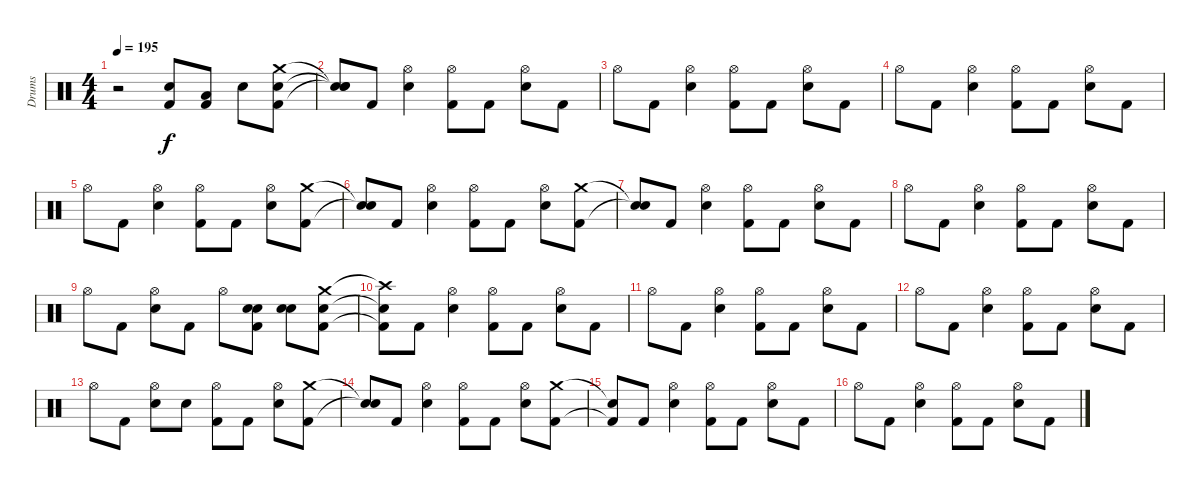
\track ("Drums" "Drums") {instrument percussion}
\staff {score}
\articulation defaults
\ts (4 4)
\tempo 195
\clef neutral
\ks c
r.2{dy f} ("Electric Snare (hit)" "Kick (hit) 2").8 ("Low Tom (hit)" "Kick (hit) 2").8 "Electric Snare (hit)".8 ("Crash medium (hit)" "Electric Snare (hit)" "Kick (hit) 2").8 |
("Snare (hit)"{t} "Snare (hit)"{t} "Snare (hit)"{t}).8 "Kick (hit) 2".8 ("Hi-Hat (open)" "Electric Snare (hit)").4 ("Hi-Hat (open)" "Kick (hit) 2").8 "Kick (hit) 2".8 ("Hi-Hat (open)" "Electric Snare (hit)").8 "Kick (hit) 2".8 |
"Hi-Hat (open)".8 "Kick (hit) 2".8 ("Hi-Hat (open)" "Electric Snare (hit)").4 ("Hi-Hat (open)" "Kick (hit) 2").8 "Kick (hit) 2".8 ("Hi-Hat (open)" "Electric Snare (hit)").8 "Kick (hit) 2".8 |
"Hi-Hat (open)".8 "Kick (hit) 2".8 ("Hi-Hat (open)" "Electric Snare (hit)").4 ("Hi-Hat (open)" "Kick (hit) 2").8 "Kick (hit) 2".8 ("Hi-Hat (open)" "Electric Snare (hit)").8 "Kick (hit) 2".8 |
"Hi-Hat (open)".8 "Kick (hit) 2".8 ("Hi-Hat (open)" "Electric Snare (hit)").4 ("Hi-Hat (open)" "Kick (hit) 2").8 "Kick (hit) 2".8 ("Hi-Hat (open)" "Electric Snare (hit)").8 ("Crash medium (hit)" "Kick (hit) 2").8 |
("Snare (hit)"{t} "Snare (hit)"{t}).8 "Kick (hit) 2".8 ("Hi-Hat (open)" "Electric Snare (hit)").4 ("Hi-Hat (open)" "Kick (hit) 2").8 "Kick (hit) 2".8 ("Hi-Hat (open)" "Electric Snare (hit)").8 ("Crash medium (hit)" "Kick (hit) 2").8 |
("Snare (hit)"{t} "Snare (hit)"{t}).8 "Kick (hit) 2".8 ("Hi-Hat (open)" "Electric Snare (hit)").4 ("Hi-Hat (open)" "Kick (hit) 2").8 "Kick (hit) 2".8 ("Hi-Hat (open)" "Electric Snare (hit)").8 "Kick (hit) 2".8 |
"Hi-Hat (open)".8 "Kick (hit) 2".8 ("Hi-Hat (open)" "Electric Snare (hit)").4 ("Hi-Hat (open)" "Kick (hit) 2").8 "Kick (hit) 2".8 ("Hi-Hat (open)" "Electric Snare (hit)").8 "Kick (hit) 2".8 |
"Hi-Hat (open)".8 "Kick (hit) 2".8 ("Hi-Hat (open)" "Electric Snare (hit)").8 "Kick (hit) 2".8 "Hi-Hat (open)".8 ("Electric Snare (hit)" "Electric Snare (hit)" "Kick (hit) 2").8 ("Electric Snare (hit)" "Electric Snare (hit)").8 ("Crash medium (hit)" "Electric Snare (hit)" "Kick (hit) 2").8 |
\section ("" "")
("Crash high (hit)"{t} "Electric Snare (hit)"{t} "Kick (hit) 2"{t}).8 "Kick (hit) 2".8 ("Hi-Hat (open)" "Electric Snare (hit)").4 ("Hi-Hat (open)" "Kick (hit) 2").8 "Kick (hit) 2".8 ("Hi-Hat (open)" "Electric Snare (hit)").8 "Kick (hit) 2".8 |
"Hi-Hat (open)".8 "Kick (hit) 2".8 ("Hi-Hat (open)" "Electric Snare (hit)").4 ("Hi-Hat (open)" "Kick (hit) 2").8 "Kick (hit) 2".8 ("Hi-Hat (open)" "Electric Snare (hit)").8 "Kick (hit) 2".8 |
"Hi-Hat (open)".8 "Kick (hit) 2".8 ("Hi-Hat (open)" "Electric Snare (hit)").4 ("Hi-Hat (open)" "Kick (hit) 2").8 "Kick (hit) 2".8 ("Hi-Hat (open)" "Electric Snare (hit)").8 "Kick (hit) 2".8 |
"Hi-Hat (open)".8 "Kick (hit) 2".8 ("Hi-Hat (open)" "Electric Snare (hit)").8 "Electric Snare (hit)".8 ("Hi-Hat (open)" "Kick (hit) 2").8 "Kick (hit) 2".8 ("Hi-Hat (open)" "Electric Snare (hit)").8 ("Crash medium (hit)" "Kick (hit) 2").8 |
("Snare (hit)"{t} "Snare (hit)"{t}).8 "Kick (hit) 2".8 ("Hi-Hat (open)" "Electric Snare (hit)").4 ("Hi-Hat (open)" "Kick (hit) 2").8 "Kick (hit) 2".8 ("Hi-Hat (open)" "Electric Snare (hit)").8 ("Crash medium (hit)" "Kick (hit) 2").8 |
("Snare (hit)"{t} "Kick (hit) 2"{t}).8 "Kick (hit) 2".8 ("Hi-Hat (open)" "Electric Snare (hit)").4 ("Hi-Hat (open)" "Kick (hit) 2").8 "Kick (hit) 2".8 ("Hi-Hat (open)" "Electric Snare (hit)").8 "Kick (hit) 2".8 |
"Hi-Hat (open)".8 "Kick (hit) 2".8 ("Hi-Hat (open)" "Electric Snare (hit)").4 ("Hi-Hat (open)" "Kick (hit) 2").8 "Kick (hit) 2".8 ("Hi-Hat (open)" "Electric Snare (hit)").8 "Kick (hit) 2".8
